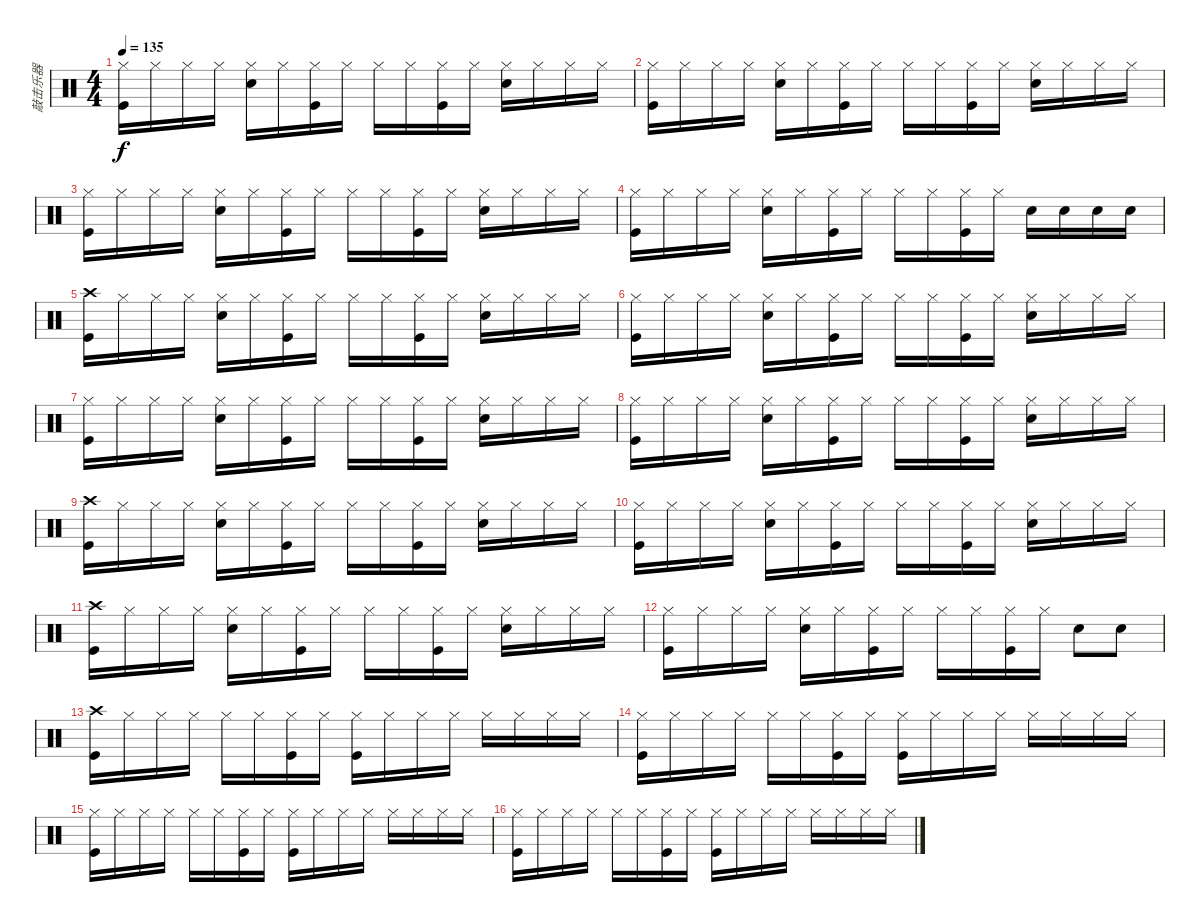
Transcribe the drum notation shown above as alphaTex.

\track ("敲击乐器" "敲击乐器") {instrument percussion}
\staff {score}
\articulation defaults
\ts (4 4)
\tempo 135
\clef neutral
\ks c
("Hi-Hat (closed)" "Kick (hit)").16{dy f} "Hi-Hat (closed)".16 "Hi-Hat (closed)".16 "Hi-Hat (closed)".16 ("Hi-Hat (closed)" "Snare (hit) 2").16 "Hi-Hat (closed)".16 ("Hi-Hat (closed)" "Kick (hit)").16 "Hi-Hat (closed)".16 "Hi-Hat (closed)".16 "Hi-Hat (closed)".16 ("Hi-Hat (closed)" "Kick (hit)").16 "Hi-Hat (closed)".16 ("Hi-Hat (closed)" "Snare (hit) 2").16 "Hi-Hat (closed)".16 "Hi-Hat (closed)".16 "Hi-Hat (closed)".16 |
("Hi-Hat (closed)" "Kick (hit)").16 "Hi-Hat (closed)".16 "Hi-Hat (closed)".16 "Hi-Hat (closed)".16 ("Hi-Hat (closed)" "Snare (hit) 2").16 "Hi-Hat (closed)".16 ("Hi-Hat (closed)" "Kick (hit)").16 "Hi-Hat (closed)".16 "Hi-Hat (closed)".16 "Hi-Hat (closed)".16 ("Hi-Hat (closed)" "Kick (hit)").16 "Hi-Hat (closed)".16 ("Hi-Hat (closed)" "Snare (hit) 2").16 "Hi-Hat (closed)".16 "Hi-Hat (closed)".16 "Hi-Hat (closed)".16 |
("Hi-Hat (closed)" "Kick (hit)").16 "Hi-Hat (closed)".16 "Hi-Hat (closed)".16 "Hi-Hat (closed)".16 ("Hi-Hat (closed)" "Snare (hit) 2").16 "Hi-Hat (closed)".16 ("Hi-Hat (closed)" "Kick (hit)").16 "Hi-Hat (closed)".16 "Hi-Hat (closed)".16 "Hi-Hat (closed)".16 ("Hi-Hat (closed)" "Kick (hit)").16 "Hi-Hat (closed)".16 ("Hi-Hat (closed)" "Snare (hit) 2").16 "Hi-Hat (closed)".16 "Hi-Hat (closed)".16 "Hi-Hat (closed)".16 |
("Hi-Hat (closed)" "Kick (hit)").16 "Hi-Hat (closed)".16 "Hi-Hat (closed)".16 "Hi-Hat (closed)".16 ("Hi-Hat (closed)" "Snare (hit) 2").16 "Hi-Hat (closed)".16 ("Hi-Hat (closed)" "Kick (hit)").16 "Hi-Hat (closed)".16 "Hi-Hat (closed)".16 "Hi-Hat (closed)".16 ("Hi-Hat (closed)" "Kick (hit)").16 "Hi-Hat (closed)".16 "Snare (hit) 2".16 "Snare (hit) 2".16 "Snare (hit) 2".16 "Snare (hit) 2".16 |
("Crash high (hit)" "Kick (hit)").16 "Hi-Hat (closed)".16 "Hi-Hat (closed)".16 "Hi-Hat (closed)".16 ("Hi-Hat (closed)" "Snare (hit) 2").16 "Hi-Hat (closed)".16 ("Hi-Hat (closed)" "Kick (hit)").16 "Hi-Hat (closed)".16 "Hi-Hat (closed)".16 "Hi-Hat (closed)".16 ("Hi-Hat (closed)" "Kick (hit)").16 "Hi-Hat (closed)".16 ("Hi-Hat (closed)" "Snare (hit) 2").16 "Hi-Hat (closed)".16 "Hi-Hat (closed)".16 "Hi-Hat (closed)".16 |
("Hi-Hat (closed)" "Kick (hit)").16 "Hi-Hat (closed)".16 "Hi-Hat (closed)".16 "Hi-Hat (closed)".16 ("Hi-Hat (closed)" "Snare (hit) 2").16 "Hi-Hat (closed)".16 ("Hi-Hat (closed)" "Kick (hit)").16 "Hi-Hat (closed)".16 "Hi-Hat (closed)".16 "Hi-Hat (closed)".16 ("Hi-Hat (closed)" "Kick (hit)").16 "Hi-Hat (closed)".16 ("Hi-Hat (closed)" "Snare (hit) 2").16 "Hi-Hat (closed)".16 "Hi-Hat (closed)".16 "Hi-Hat (closed)".16 |
("Hi-Hat (closed)" "Kick (hit)").16 "Hi-Hat (closed)".16 "Hi-Hat (closed)".16 "Hi-Hat (closed)".16 ("Hi-Hat (closed)" "Snare (hit) 2").16 "Hi-Hat (closed)".16 ("Hi-Hat (closed)" "Kick (hit)").16 "Hi-Hat (closed)".16 "Hi-Hat (closed)".16 "Hi-Hat (closed)".16 ("Hi-Hat (closed)" "Kick (hit)").16 "Hi-Hat (closed)".16 ("Hi-Hat (closed)" "Snare (hit) 2").16 "Hi-Hat (closed)".16 "Hi-Hat (closed)".16 "Hi-Hat (closed)".16 |
("Hi-Hat (closed)" "Kick (hit)").16 "Hi-Hat (closed)".16 "Hi-Hat (closed)".16 "Hi-Hat (closed)".16 ("Hi-Hat (closed)" "Snare (hit) 2").16 "Hi-Hat (closed)".16 ("Hi-Hat (closed)" "Kick (hit)").16 "Hi-Hat (closed)".16 "Hi-Hat (closed)".16 "Hi-Hat (closed)".16 ("Hi-Hat (closed)" "Kick (hit)").16 "Hi-Hat (closed)".16 ("Hi-Hat (closed)" "Snare (hit) 2").16 "Hi-Hat (closed)".16 "Hi-Hat (closed)".16 "Hi-Hat (closed)".16 |
("Crash high (hit)" "Kick (hit)").16 "Hi-Hat (closed)".16 "Hi-Hat (closed)".16 "Hi-Hat (closed)".16 ("Hi-Hat (closed)" "Snare (hit) 2").16 "Hi-Hat (closed)".16 ("Hi-Hat (closed)" "Kick (hit)").16 "Hi-Hat (closed)".16 "Hi-Hat (closed)".16 "Hi-Hat (closed)".16 ("Hi-Hat (closed)" "Kick (hit)").16 "Hi-Hat (closed)".16 ("Hi-Hat (closed)" "Snare (hit) 2").16 "Hi-Hat (closed)".16 "Hi-Hat (closed)".16 "Hi-Hat (closed)".16 |
("Hi-Hat (closed)" "Kick (hit)").16 "Hi-Hat (closed)".16 "Hi-Hat (closed)".16 "Hi-Hat (closed)".16 ("Hi-Hat (closed)" "Snare (hit) 2").16 "Hi-Hat (closed)".16 ("Hi-Hat (closed)" "Kick (hit)").16 "Hi-Hat (closed)".16 "Hi-Hat (closed)".16 "Hi-Hat (closed)".16 ("Hi-Hat (closed)" "Kick (hit)").16 "Hi-Hat (closed)".16 ("Hi-Hat (closed)" "Snare (hit) 2").16 "Hi-Hat (closed)".16 "Hi-Hat (closed)".16 "Hi-Hat (closed)".16 |
("Crash high (hit)" "Kick (hit)").16 "Hi-Hat (closed)".16 "Hi-Hat (closed)".16 "Hi-Hat (closed)".16 ("Hi-Hat (closed)" "Snare (hit) 2").16 "Hi-Hat (closed)".16 ("Hi-Hat (closed)" "Kick (hit)").16 "Hi-Hat (closed)".16 "Hi-Hat (closed)".16 "Hi-Hat (closed)".16 ("Hi-Hat (closed)" "Kick (hit)").16 "Hi-Hat (closed)".16 ("Hi-Hat (closed)" "Snare (hit) 2").16 "Hi-Hat (closed)".16 "Hi-Hat (closed)".16 "Hi-Hat (closed)".16 |
("Hi-Hat (closed)" "Kick (hit)").16 "Hi-Hat (closed)".16 "Hi-Hat (closed)".16 "Hi-Hat (closed)".16 ("Hi-Hat (closed)" "Snare (hit) 2").16 "Hi-Hat (closed)".16 ("Hi-Hat (closed)" "Kick (hit)").16 "Hi-Hat (closed)".16 "Hi-Hat (closed)".16 "Hi-Hat (closed)".16 ("Hi-Hat (closed)" "Kick (hit)").16 "Hi-Hat (closed)".16 "Snare (hit) 2".8 "Snare (hit) 2".8 |
("Crash high (hit)" "Kick (hit)").16 "Hi-Hat (closed)".16 "Hi-Hat (closed)".16 "Hi-Hat (closed)".16 "Hi-Hat (closed)".16 "Hi-Hat (closed)".16 ("Hi-Hat (closed)" "Kick (hit)").16 "Hi-Hat (closed)".16 ("Hi-Hat (closed)" "Kick (hit)").16 "Hi-Hat (closed)".16 "Hi-Hat (closed)".16 "Hi-Hat (closed)".16 "Hi-Hat (closed)".16 "Hi-Hat (closed)".16 "Hi-Hat (closed)".16 "Hi-Hat (closed)".16 |
("Hi-Hat (closed)" "Kick (hit)").16 "Hi-Hat (closed)".16 "Hi-Hat (closed)".16 "Hi-Hat (closed)".16 "Hi-Hat (closed)".16 "Hi-Hat (closed)".16 ("Hi-Hat (closed)" "Kick (hit)").16 "Hi-Hat (closed)".16 ("Hi-Hat (closed)" "Kick (hit)").16 "Hi-Hat (closed)".16 "Hi-Hat (closed)".16 "Hi-Hat (closed)".16 "Hi-Hat (closed)".16 "Hi-Hat (closed)".16 "Hi-Hat (closed)".16 "Hi-Hat (closed)".16 |
("Hi-Hat (closed)" "Kick (hit)").16 "Hi-Hat (closed)".16 "Hi-Hat (closed)".16 "Hi-Hat (closed)".16 "Hi-Hat (closed)".16 "Hi-Hat (closed)".16 ("Hi-Hat (closed)" "Kick (hit)").16 "Hi-Hat (closed)".16 ("Hi-Hat (closed)" "Kick (hit)").16 "Hi-Hat (closed)".16 "Hi-Hat (closed)".16 "Hi-Hat (closed)".16 "Hi-Hat (closed)".16 "Hi-Hat (closed)".16 "Hi-Hat (closed)".16 "Hi-Hat (closed)".16 |
("Hi-Hat (closed)" "Kick (hit)").16 "Hi-Hat (closed)".16 "Hi-Hat (closed)".16 "Hi-Hat (closed)".16 "Hi-Hat (closed)".16 "Hi-Hat (closed)".16 ("Hi-Hat (closed)" "Kick (hit)").16 "Hi-Hat (closed)".16 ("Hi-Hat (closed)" "Kick (hit)").16 "Hi-Hat (closed)".16 "Hi-Hat (closed)".16 "Hi-Hat (closed)".16 "Hi-Hat (closed)".16 "Hi-Hat (closed)".16 "Hi-Hat (closed)".16 "Hi-Hat (closed)".16
